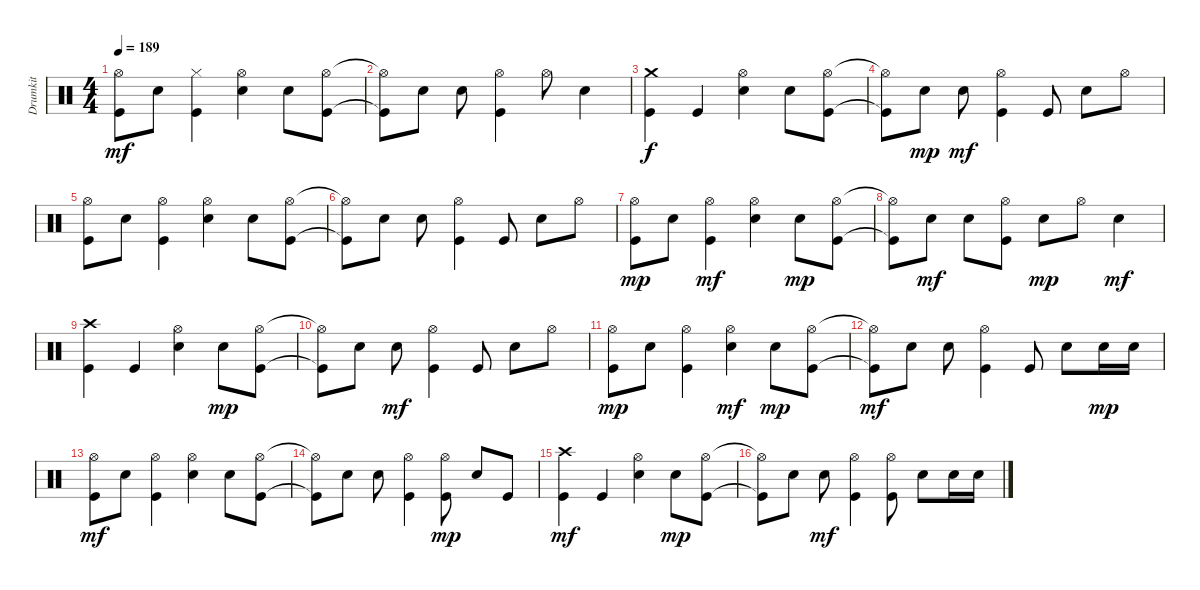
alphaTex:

\track ("Drumkit" "Drumkit") {instrument percussion}
\staff {score}
\articulation defaults
\ts (4 4)
\tempo 189
\clef neutral
\ks c
("Kick (hit)" "Hi-Hat (open)").8{dy mf} "Snare (hit) 2".8 ("Kick (hit)" "Hi-Hat (closed)").4 ("Snare (hit) 2" "Hi-Hat (open)").4 "Snare (hit) 2".8 ("Kick (hit)" "Hi-Hat (open)").8 |
("Kick (hit)"{t} "Hi-Hat (open)"{t}).8 "Snare (hit) 2".8 "Snare (hit) 2".8 ("Hi-Hat (open)" "Kick (hit)").4 "Hi-Hat (open)".8 "Snare (hit) 2".4 |
("Kick (hit)" "Crash medium (hit)").4{dy f} "Kick (hit)".4 ("Snare (hit) 2" "Hi-Hat (open)").4 "Snare (hit) 2".8 ("Kick (hit)" "Hi-Hat (open)").8 |
("Kick (hit)"{t} "Hi-Hat (open)"{t}).8 "Snare (hit) 2".8{dy mp} "Snare (hit) 2".8{dy mf} ("Kick (hit)" "Hi-Hat (open)").4 "Kick (hit)".8 "Snare (hit) 2".8 "Hi-Hat (open)".8 |
("Kick (hit)" "Hi-Hat (open)").8 "Snare (hit) 2".8 ("Kick (hit)" "Hi-Hat (open)").4 ("Snare (hit) 2" "Hi-Hat (open)").4 "Snare (hit) 2".8 ("Kick (hit)" "Hi-Hat (open)").8 |
("Kick (hit)"{t} "Hi-Hat (open)"{t}).8 "Snare (hit) 2".8 "Snare (hit) 2".8 ("Hi-Hat (open)" "Kick (hit)").4 "Kick (hit)".8 "Snare (hit) 2".8 "Hi-Hat (open)".8 |
("Kick (hit)" "Hi-Hat (open)").8{dy mp} "Snare (hit) 2".8 ("Kick (hit)" "Hi-Hat (open)").4{dy mf} ("Snare (hit) 2" "Hi-Hat (open)").4 "Snare (hit) 2".8{dy mp} ("Kick (hit)" "Hi-Hat (open)").8 |
("Kick (hit)"{t} "Hi-Hat (open)"{t}).8 "Snare (hit) 2".8{dy mf} "Snare (hit) 2".8 ("Hi-Hat (open)" "Kick (hit)").8 "Snare (hit) 2".8{dy mp} "Hi-Hat (open)".8 "Snare (hit) 2".4{dy mf} |
("Kick (hit)" "Crash high (hit)").4 "Kick (hit)".4 ("Snare (hit) 2" "Hi-Hat (open)").4 "Snare (hit) 2".8{dy mp} ("Kick (hit)" "Hi-Hat (open)").8 |
("Kick (hit)"{t} "Hi-Hat (open)"{t}).8 "Snare (hit) 2".8 "Snare (hit) 2".8{dy mf} ("Kick (hit)" "Hi-Hat (open)").4 "Kick (hit)".8 "Snare (hit) 2".8 "Hi-Hat (open)".8 |
("Kick (hit)" "Hi-Hat (open)").8{dy mp} "Snare (hit) 2".8 ("Kick (hit)" "Hi-Hat (open)").4 ("Snare (hit) 2" "Hi-Hat (open)").4{dy mf} "Snare (hit) 2".8{dy mp} ("Kick (hit)" "Hi-Hat (open)").8 |
("Kick (hit)"{t} "Hi-Hat (open)"{t}).8{dy mf} "Snare (hit) 2".8 "Snare (hit) 2".8 ("Kick (hit)" "Hi-Hat (open)").4 "Kick (hit)".8 "Snare (hit) 2".8 "Snare (hit) 2".16{dy mp} "Snare (hit) 2".16 |
("Kick (hit)" "Hi-Hat (open)").8{dy mf} "Snare (hit) 2".8 ("Kick (hit)" "Hi-Hat (open)").4 ("Snare (hit) 2" "Hi-Hat (open)").4 "Snare (hit) 2".8 ("Kick (hit)" "Hi-Hat (open)").8 |
("Kick (hit)"{t} "Hi-Hat (open)"{t}).8 "Snare (hit) 2".8 "Snare (hit) 2".8 ("Kick (hit)" "Hi-Hat (open)").4 ("Kick (hit)" "Hi-Hat (open)").8{dy mp} "Snare (hit) 2".8 "Kick (hit)".8 |
("Kick (hit)" "Crash high (hit)").4{dy mf} "Kick (hit)".4 ("Snare (hit) 2" "Hi-Hat (open)").4 "Snare (hit) 2".8{dy mp} ("Kick (hit)" "Hi-Hat (open)").8 |
("Kick (hit)"{t} "Hi-Hat (open)"{t}).8 "Snare (hit) 2".8 "Snare (hit) 2".8{dy mf} ("Kick (hit)" "Hi-Hat (open)").4 ("Kick (hit)" "Hi-Hat (open)").8 "Snare (hit) 2".8 "Snare (hit) 2".16 "Snare (hit) 2".16
